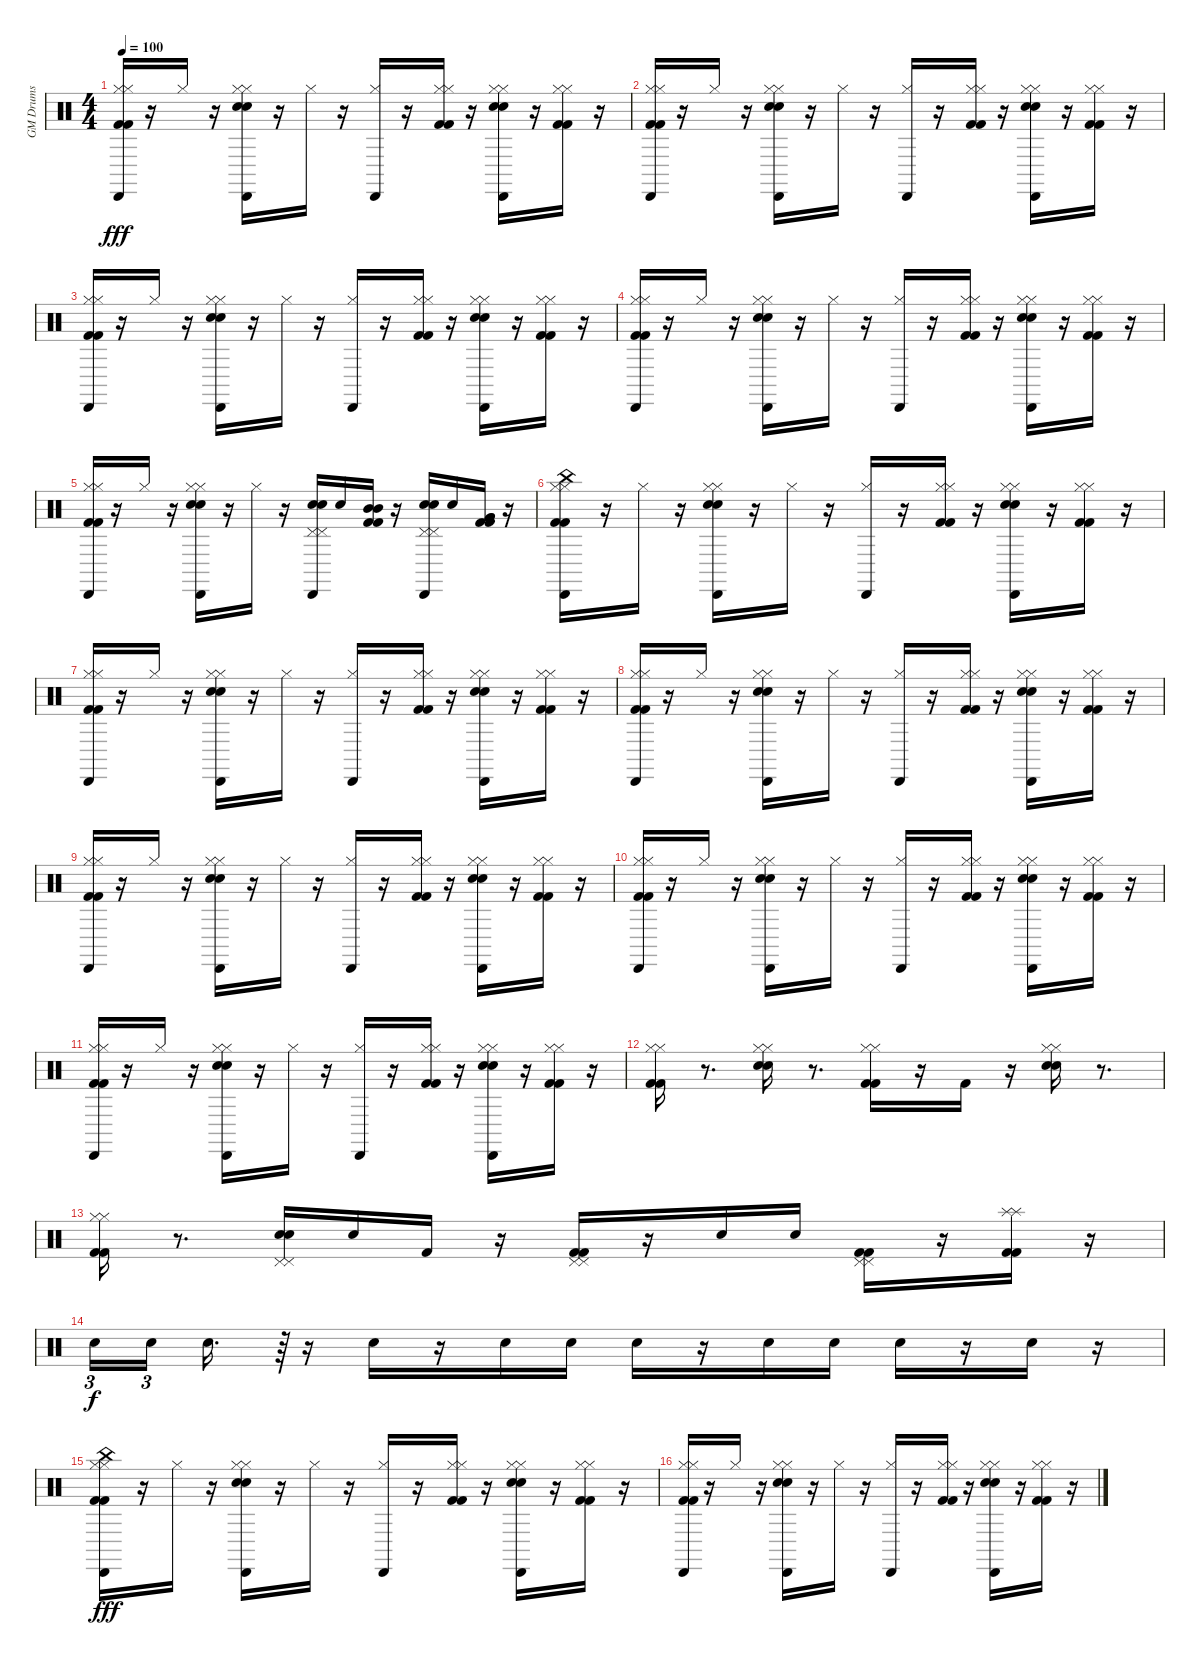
\track ("GM Drums" "GM Drums") {instrument percussion}
\staff {score}
\articulation defaults
\ts (4 4)
\tempo 100
\clef neutral
\ks c
("Kick (hit) 2" "Kick (hit) 2" "Hi-Hat (closed)" "Hi-Hat (closed)" "Cabasa (hit)").16{dy fff} r.16 "Hi-Hat (closed)".16 r.16 ("Snare (hit) 2" "Snare (hit) 2" "Hi-Hat (closed)" "Hi-Hat (closed)" "Cabasa (hit)").16 r.16 "Hi-Hat (closed)".16 r.16 ("Hi-Hat (closed)" "Cabasa (hit)").16 r.16 ("Kick (hit) 2" "Kick (hit) 2" "Hi-Hat (closed)" "Hi-Hat (closed)").16 r.16 ("Snare (hit) 2" "Snare (hit) 2" "Hi-Hat (closed)" "Hi-Hat (closed)" "Cabasa (hit)").16 r.16 ("Kick (hit) 2" "Kick (hit) 2" "Hi-Hat (closed)" "Hi-Hat (closed)").16 r.16 |
("Kick (hit) 2" "Kick (hit) 2" "Hi-Hat (closed)" "Hi-Hat (closed)" "Cabasa (hit)").16 r.16 "Hi-Hat (closed)".16 r.16 ("Snare (hit) 2" "Snare (hit) 2" "Hi-Hat (closed)" "Hi-Hat (closed)" "Cabasa (hit)").16 r.16 "Hi-Hat (closed)".16 r.16 ("Hi-Hat (closed)" "Cabasa (hit)").16 r.16 ("Kick (hit) 2" "Kick (hit) 2" "Hi-Hat (closed)" "Hi-Hat (closed)").16 r.16 ("Snare (hit) 2" "Snare (hit) 2" "Hi-Hat (closed)" "Hi-Hat (closed)" "Cabasa (hit)").16 r.16 ("Kick (hit) 2" "Kick (hit) 2" "Hi-Hat (closed)" "Hi-Hat (closed)").16 r.16 |
("Kick (hit) 2" "Kick (hit) 2" "Hi-Hat (closed)" "Hi-Hat (closed)" "Cabasa (hit)").16 r.16 "Hi-Hat (closed)".16 r.16 ("Snare (hit) 2" "Snare (hit) 2" "Hi-Hat (closed)" "Hi-Hat (closed)" "Cabasa (hit)").16 r.16 "Hi-Hat (closed)".16 r.16 ("Hi-Hat (closed)" "Cabasa (hit)").16 r.16 ("Kick (hit) 2" "Kick (hit) 2" "Hi-Hat (closed)" "Hi-Hat (closed)").16 r.16 ("Snare (hit) 2" "Snare (hit) 2" "Hi-Hat (closed)" "Hi-Hat (closed)" "Cabasa (hit)").16 r.16 ("Kick (hit) 2" "Kick (hit) 2" "Hi-Hat (closed)" "Hi-Hat (closed)").16 r.16 |
("Kick (hit) 2" "Kick (hit) 2" "Hi-Hat (closed)" "Hi-Hat (closed)" "Cabasa (hit)").16 r.16 "Hi-Hat (closed)".16 r.16 ("Snare (hit) 2" "Snare (hit) 2" "Hi-Hat (closed)" "Hi-Hat (closed)" "Cabasa (hit)").16 r.16 "Hi-Hat (closed)".16 r.16 ("Hi-Hat (closed)" "Cabasa (hit)").16 r.16 ("Kick (hit) 2" "Kick (hit) 2" "Hi-Hat (closed)" "Hi-Hat (closed)").16 r.16 ("Snare (hit) 2" "Snare (hit) 2" "Hi-Hat (closed)" "Hi-Hat (closed)" "Cabasa (hit)").16 r.16 ("Kick (hit) 2" "Kick (hit) 2" "Hi-Hat (closed)" "Hi-Hat (closed)").16 r.16 |
("Kick (hit) 2" "Kick (hit) 2" "Hi-Hat (closed)" "Hi-Hat (closed)" "Cabasa (hit)").16 r.16 "Hi-Hat (closed)".16 r.16 ("Snare (hit) 2" "Snare (hit) 2" "Hi-Hat (closed)" "Hi-Hat (closed)" "Cabasa (hit)").16 r.16 "Hi-Hat (closed)".16 r.16 ("Snare (hit) 2" "Snare (hit) 2" "Pedal Hi-Hat (hit)" "Pedal Hi-Hat (hit)" "Cabasa (hit)").16 "Snare (hit) 2".16 ("Kick (hit) 2" "Kick (hit) 2" "Mid Tom (hit)" "Mid Tom (hit)").16 r.16 ("Snare (hit) 2" "Snare (hit) 2" "Pedal Hi-Hat (hit)" "Pedal Hi-Hat (hit)" "Cabasa (hit)").16 "Snare (hit) 2".16 ("Kick (hit) 2" "Kick (hit) 2" "Very Low Tom (hit)" "Very Low Tom (hit)").16 r.16 |
("Kick (hit) 2" "Kick (hit) 2" "Hi-Hat (closed)" "Hi-Hat (closed)" "China (hit)" "Cabasa (hit)").16 r.16 "Hi-Hat (closed)".16 r.16 ("Snare (hit) 2" "Snare (hit) 2" "Hi-Hat (closed)" "Hi-Hat (closed)" "Cabasa (hit)").16 r.16 "Hi-Hat (closed)".16 r.16 ("Hi-Hat (closed)" "Cabasa (hit)").16 r.16 ("Kick (hit) 2" "Kick (hit) 2" "Hi-Hat (closed)" "Hi-Hat (closed)").16 r.16 ("Snare (hit) 2" "Snare (hit) 2" "Hi-Hat (closed)" "Hi-Hat (closed)" "Cabasa (hit)").16 r.16 ("Kick (hit) 2" "Kick (hit) 2" "Hi-Hat (closed)" "Hi-Hat (closed)").16 r.16 |
("Kick (hit) 2" "Kick (hit) 2" "Hi-Hat (closed)" "Hi-Hat (closed)" "Cabasa (hit)").16 r.16 "Hi-Hat (closed)".16 r.16 ("Snare (hit) 2" "Snare (hit) 2" "Hi-Hat (closed)" "Hi-Hat (closed)" "Cabasa (hit)").16 r.16 "Hi-Hat (closed)".16 r.16 ("Hi-Hat (closed)" "Cabasa (hit)").16 r.16 ("Kick (hit) 2" "Kick (hit) 2" "Hi-Hat (closed)" "Hi-Hat (closed)").16 r.16 ("Snare (hit) 2" "Snare (hit) 2" "Hi-Hat (closed)" "Hi-Hat (closed)" "Cabasa (hit)").16 r.16 ("Kick (hit) 2" "Kick (hit) 2" "Hi-Hat (closed)" "Hi-Hat (closed)").16 r.16 |
("Kick (hit) 2" "Kick (hit) 2" "Hi-Hat (closed)" "Hi-Hat (closed)" "Cabasa (hit)").16 r.16 "Hi-Hat (closed)".16 r.16 ("Snare (hit) 2" "Snare (hit) 2" "Hi-Hat (closed)" "Hi-Hat (closed)" "Cabasa (hit)").16 r.16 "Hi-Hat (closed)".16 r.16 ("Hi-Hat (closed)" "Cabasa (hit)").16 r.16 ("Kick (hit) 2" "Kick (hit) 2" "Hi-Hat (closed)" "Hi-Hat (closed)").16 r.16 ("Snare (hit) 2" "Snare (hit) 2" "Hi-Hat (closed)" "Hi-Hat (closed)" "Cabasa (hit)").16 r.16 ("Kick (hit) 2" "Kick (hit) 2" "Hi-Hat (closed)" "Hi-Hat (closed)").16 r.16 |
("Kick (hit) 2" "Kick (hit) 2" "Hi-Hat (closed)" "Hi-Hat (closed)" "Cabasa (hit)").16 r.16 "Hi-Hat (closed)".16 r.16 ("Snare (hit) 2" "Snare (hit) 2" "Hi-Hat (closed)" "Hi-Hat (closed)" "Cabasa (hit)").16 r.16 "Hi-Hat (closed)".16 r.16 ("Hi-Hat (closed)" "Cabasa (hit)").16 r.16 ("Kick (hit) 2" "Kick (hit) 2" "Hi-Hat (closed)" "Hi-Hat (closed)").16 r.16 ("Snare (hit) 2" "Snare (hit) 2" "Hi-Hat (closed)" "Hi-Hat (closed)" "Cabasa (hit)").16 r.16 ("Kick (hit) 2" "Kick (hit) 2" "Hi-Hat (closed)" "Hi-Hat (closed)").16 r.16 |
("Kick (hit) 2" "Kick (hit) 2" "Hi-Hat (closed)" "Hi-Hat (closed)" "Cabasa (hit)").16 r.16 "Hi-Hat (closed)".16 r.16 ("Snare (hit) 2" "Snare (hit) 2" "Hi-Hat (closed)" "Hi-Hat (closed)" "Cabasa (hit)").16 r.16 "Hi-Hat (closed)".16 r.16 ("Hi-Hat (closed)" "Cabasa (hit)").16 r.16 ("Kick (hit) 2" "Kick (hit) 2" "Hi-Hat (closed)" "Hi-Hat (closed)").16 r.16 ("Snare (hit) 2" "Snare (hit) 2" "Hi-Hat (closed)" "Hi-Hat (closed)" "Cabasa (hit)").16 r.16 ("Kick (hit) 2" "Kick (hit) 2" "Hi-Hat (closed)" "Hi-Hat (closed)").16 r.16 |
("Kick (hit) 2" "Kick (hit) 2" "Hi-Hat (closed)" "Hi-Hat (closed)" "Cabasa (hit)").16 r.16 "Hi-Hat (closed)".16 r.16 ("Snare (hit) 2" "Snare (hit) 2" "Hi-Hat (closed)" "Hi-Hat (closed)" "Cabasa (hit)").16 r.16 "Hi-Hat (closed)".16 r.16 ("Hi-Hat (closed)" "Cabasa (hit)").16 r.16 ("Kick (hit) 2" "Kick (hit) 2" "Hi-Hat (closed)" "Hi-Hat (closed)").16 r.16 ("Snare (hit) 2" "Snare (hit) 2" "Hi-Hat (closed)" "Hi-Hat (closed)" "Cabasa (hit)").16 r.16 ("Kick (hit) 2" "Kick (hit) 2" "Hi-Hat (closed)" "Hi-Hat (closed)").16 r.16 |
("Kick (hit) 2" "Kick (hit) 2" "Hi-Hat (closed)" "Hi-Hat (closed)").16 r.8{d} ("Snare (hit) 2" "Snare (hit) 2" "Hi-Hat (closed)" "Hi-Hat (closed)").16 r.8{d} ("Kick (hit) 2" "Kick (hit) 2" "Hi-Hat (closed)" "Hi-Hat (closed)").16 r.16 "Kick (hit) 2".16 r.16 ("Snare (hit) 2" "Snare (hit) 2" "Hi-Hat (closed)" "Hi-Hat (closed)").16 r.8{d} |
("Kick (hit) 2" "Kick (hit) 2" "Hi-Hat (closed)" "Hi-Hat (closed)").16 r.8{d} ("Snare (hit) 2" "Snare (hit) 2" "Pedal Hi-Hat (hit)" "Pedal Hi-Hat (hit)").16 "Snare (hit) 2".16 "Kick (hit) 2".16 r.16 ("Kick (hit) 2" "Kick (hit) 2" "Pedal Hi-Hat (hit)" "Pedal Hi-Hat (hit)").16 r.16 "Snare (hit) 2".16 "Snare (hit) 2".16 ("Kick (hit) 2" "Kick (hit) 2" "Pedal Hi-Hat (hit)" "Pedal Hi-Hat (hit)").16 r.16 ("Kick (hit) 2" "Kick (hit) 2" "Splash (hit)" "Splash (hit)").16 r.16 |
"Electric Snare (hit)".16{tu (3 2) dy f} "Electric Snare (hit)".16{tu (3 2)} "Electric Snare (hit)".16{d} r.64{tu (3 2)} r.16 "Electric Snare (hit)".16 r.16 "Electric Snare (hit)".16 "Electric Snare (hit)".16 "Electric Snare (hit)".16 r.16 "Snare (hit) 2".16 "Snare (hit) 2".16 "Snare (hit) 2".16 r.16 "Snare (hit) 2".16 r.16 |
("Kick (hit) 2" "Kick (hit) 2" "Hi-Hat (closed)" "Hi-Hat (closed)" "China (hit)" "Cabasa (hit)").16{dy fff} r.16 "Hi-Hat (closed)".16 r.16 ("Snare (hit) 2" "Snare (hit) 2" "Hi-Hat (closed)" "Hi-Hat (closed)" "Cabasa (hit)").16 r.16 "Hi-Hat (closed)".16 r.16 ("Hi-Hat (closed)" "Cabasa (hit)").16 r.16 ("Kick (hit) 2" "Kick (hit) 2" "Hi-Hat (closed)" "Hi-Hat (closed)").16 r.16 ("Snare (hit) 2" "Snare (hit) 2" "Hi-Hat (closed)" "Hi-Hat (closed)" "Cabasa (hit)").16 r.16 ("Kick (hit) 2" "Kick (hit) 2" "Hi-Hat (closed)" "Hi-Hat (closed)").16 r.16 |
("Kick (hit) 2" "Kick (hit) 2" "Hi-Hat (closed)" "Hi-Hat (closed)" "Cabasa (hit)").16 r.16 "Hi-Hat (closed)".16 r.16 ("Snare (hit) 2" "Snare (hit) 2" "Hi-Hat (closed)" "Hi-Hat (closed)" "Cabasa (hit)").16 r.16 "Hi-Hat (closed)".16 r.16 ("Hi-Hat (closed)" "Cabasa (hit)").16 r.16 ("Kick (hit) 2" "Kick (hit) 2" "Hi-Hat (closed)" "Hi-Hat (closed)").16 r.16 ("Snare (hit) 2" "Snare (hit) 2" "Hi-Hat (closed)" "Hi-Hat (closed)" "Cabasa (hit)").16 r.16 ("Kick (hit) 2" "Kick (hit) 2" "Hi-Hat (closed)" "Hi-Hat (closed)").16 r.16
